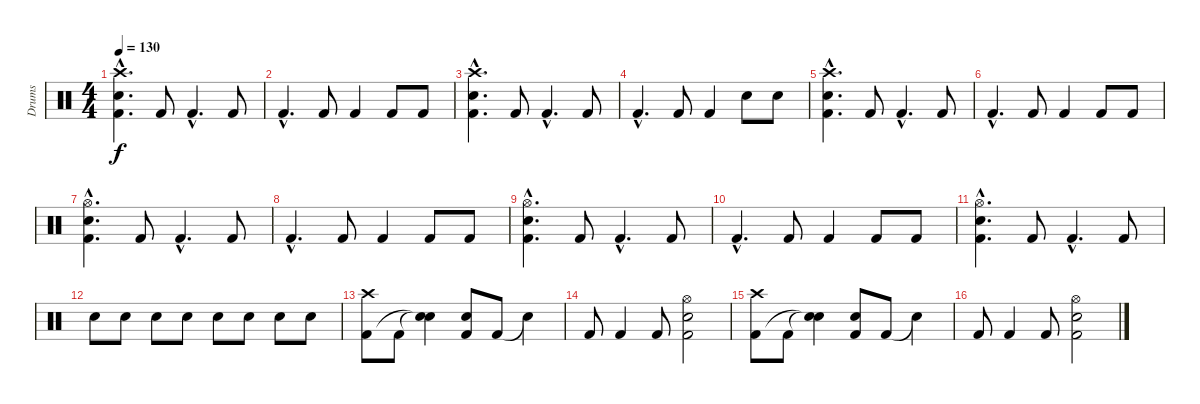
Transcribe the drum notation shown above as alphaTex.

\track ("Drums" "Drums") {instrument percussion}
\staff {score}
\articulation defaults
\ts (4 4)
\tempo 130
\clef neutral
\ks c
("Crash high (hit)"{hac} "Electric Snare (hit)"{hac} "Kick (hit) 2"{hac}).4{d dy f} "Kick (hit) 2".8 "Kick (hit) 2"{hac}.4{d} "Kick (hit) 2".8 |
"Kick (hit) 2"{hac}.4{d} "Kick (hit) 2".8 "Kick (hit) 2".4 "Kick (hit) 2".8 "Kick (hit) 2".8 |
("Crash high (hit)"{hac} "Electric Snare (hit)"{hac} "Kick (hit) 2"{hac}).4{d} "Kick (hit) 2".8 "Kick (hit) 2"{hac}.4{d} "Kick (hit) 2".8 |
"Kick (hit) 2"{hac}.4{d} "Kick (hit) 2".8 "Kick (hit) 2".4 "Electric Snare (hit)".8 "Electric Snare (hit)".8 |
("Crash high (hit)"{hac} "Electric Snare (hit)"{hac} "Kick (hit) 2"{hac}).4{d} "Kick (hit) 2".8 "Kick (hit) 2"{hac}.4{d} "Kick (hit) 2".8 |
"Kick (hit) 2"{hac}.4{d} "Kick (hit) 2".8 "Kick (hit) 2".4 "Kick (hit) 2".8 "Kick (hit) 2".8 |
("Hi-Hat (open)"{hac} "Electric Snare (hit)"{hac} "Kick (hit) 2"{hac}).4{d} "Kick (hit) 2".8 "Kick (hit) 2"{hac}.4{d} "Kick (hit) 2".8 |
"Kick (hit) 2"{hac}.4{d} "Kick (hit) 2".8 "Kick (hit) 2".4 "Kick (hit) 2".8 "Kick (hit) 2".8 |
("Hi-Hat (open)"{hac} "Electric Snare (hit)"{hac} "Kick (hit) 2"{hac}).4{d} "Kick (hit) 2".8 "Kick (hit) 2"{hac}.4{d} "Kick (hit) 2".8 |
"Kick (hit) 2"{hac}.4{d} "Kick (hit) 2".8 "Kick (hit) 2".4 "Kick (hit) 2".8 "Kick (hit) 2".8 |
("Hi-Hat (open)"{hac} "Electric Snare (hit)"{hac} "Kick (hit) 2"{hac}).4{d} "Kick (hit) 2".8 "Kick (hit) 2"{hac}.4{d} "Kick (hit) 2".8 |
"Snare (hit) 2".8{volume 10} "Snare (hit) 2".8{volume 16} "Snare (hit) 2".8 "Snare (hit) 2".8 "Snare (hit) 2".8 "Snare (hit) 2".8 "Snare (hit) 2".8 "Snare (hit) 2".8 |
("Crash high (hit)" "Kick (hit) 2").8 "Kick (hit) 2".8 ("Snare (hit)"{t} "Snare (hit)"{t}).4 ("Electric Snare (hit)" "Kick (hit) 2").8 "Kick (hit) 2".8 "Snare (hit)"{t}.4 |
"Kick (hit) 2".8 "Kick (hit) 2".4 "Kick (hit) 2".8 ("Hi-Hat (open)" "Electric Snare (hit)" "Kick (hit) 2").2 |
("Crash high (hit)" "Kick (hit) 2").8 "Kick (hit) 2".8 ("Snare (hit)"{t} "Snare (hit)"{t}).4 ("Electric Snare (hit)" "Kick (hit) 2").8 "Kick (hit) 2".8 "Snare (hit)"{t}.4 |
"Kick (hit) 2".8 "Kick (hit) 2".4 "Kick (hit) 2".8 ("Hi-Hat (open)" "Electric Snare (hit)" "Kick (hit) 2").2
